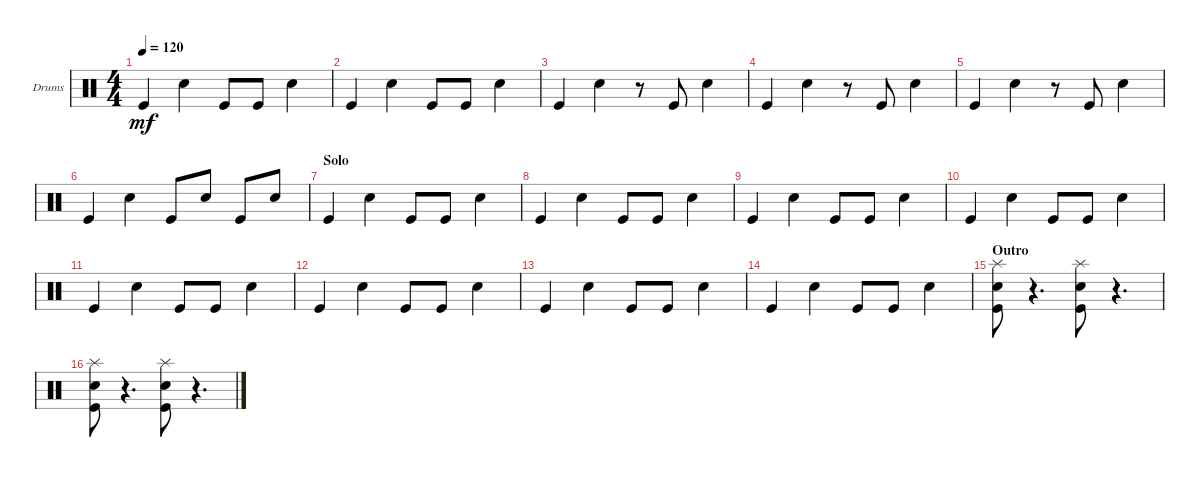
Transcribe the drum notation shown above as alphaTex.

\bracketExtendMode groupsimilarinstruments
\firstSystemTrackNameOrientation horizontal
\otherSystemsTrackNameOrientation horizontal
\track ("Drumkit" "Drums") {instrument percussion}
\staff {score}
\articulation defaults
\ts (4 4)
\tempo 120
\clef neutral
\ks c "Kick (hit)".4{dy mf} "Snare (hit) 2".4 "Kick (hit)".8 "Kick (hit)".8 "Snare (hit) 2".4
|
"Kick (hit)".4 "Snare (hit) 2".4 "Kick (hit)".8 "Kick (hit)".8 "Snare (hit) 2".4 |
"Kick (hit)".4 "Snare (hit) 2".4 r.8 "Kick (hit)".8 "Snare (hit) 2".4 |
"Kick (hit)".4 "Snare (hit) 2".4 r.8 "Kick (hit)".8 "Snare (hit) 2".4 |
"Kick (hit)".4 "Snare (hit) 2".4 r.8 "Kick (hit)".8 "Snare (hit) 2".4 |
"Kick (hit)".4 "Snare (hit) 2".4 "Kick (hit)".8 "Snare (hit) 2".8 "Kick (hit)".8 "Snare (hit) 2".8 |
\section ("" "Solo")
"Kick (hit)".4 "Snare (hit) 2".4 "Kick (hit)".8 "Kick (hit)".8 "Snare (hit) 2".4 |
"Kick (hit)".4 "Snare (hit) 2".4 "Kick (hit)".8 "Kick (hit)".8 "Snare (hit) 2".4 |
"Kick (hit)".4 "Snare (hit) 2".4 "Kick (hit)".8 "Kick (hit)".8 "Snare (hit) 2".4 |
"Kick (hit)".4 "Snare (hit) 2".4 "Kick (hit)".8 "Kick (hit)".8 "Snare (hit) 2".4 |
"Kick (hit)".4 "Snare (hit) 2".4 "Kick (hit)".8 "Kick (hit)".8 "Snare (hit) 2".4 |
"Kick (hit)".4 "Snare (hit) 2".4 "Kick (hit)".8 "Kick (hit)".8 "Snare (hit) 2".4 |
"Kick (hit)".4 "Snare (hit) 2".4 "Kick (hit)".8 "Kick (hit)".8 "Snare (hit) 2".4 |
"Kick (hit)".4 "Snare (hit) 2".4 "Kick (hit)".8 "Kick (hit)".8 "Snare (hit) 2".4 |
\section ("" "Outro")
("Kick (hit)" "Snare (hit) 2" "Splash (hit)").8 r.4{d} ("Kick (hit)" "Snare (hit) 2" "Splash (hit)").8 r.4{d} |
("Kick (hit)" "Snare (hit) 2" "Splash (hit)").8 r.4{d} ("Kick (hit)" "Snare (hit) 2" "Splash (hit)").8 r.4{d}
